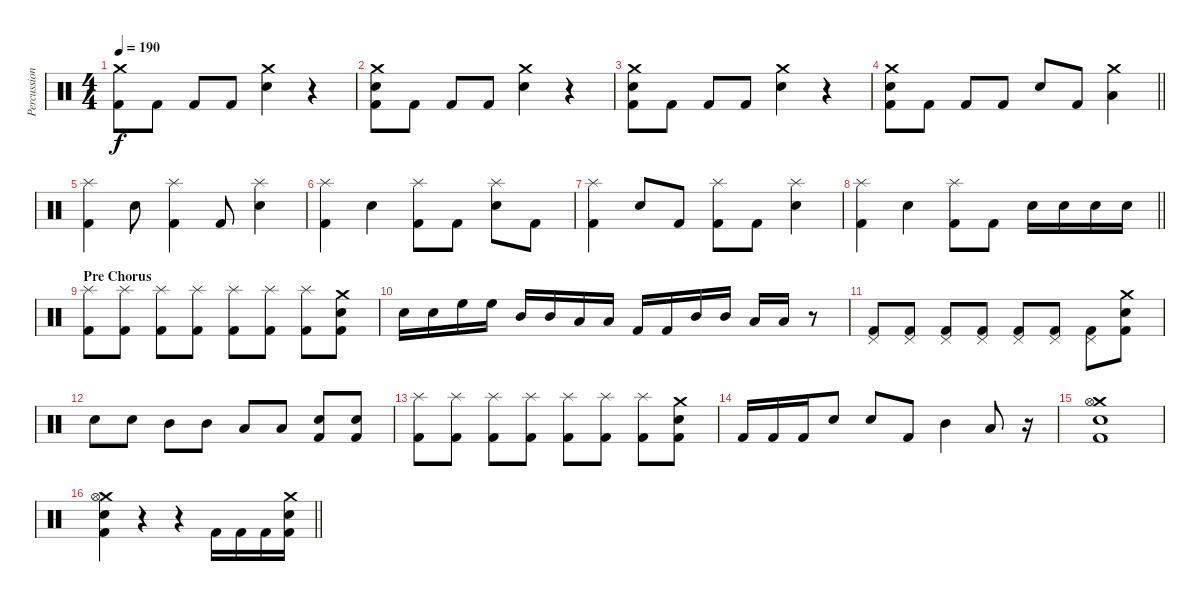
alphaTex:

\track ("Percussion" "Percussion") {instrument percussion}
\staff {score}
\articulation defaults
\ts (4 4)
\tempo 190
\clef neutral
\ks c
("Crash medium (hit)" "Kick (hit) 2").8{dy f} "Kick (hit) 2".8 "Kick (hit) 2".8 "Kick (hit) 2".8 ("Crash medium (hit)" "Electric Snare (hit)").4 r.4 |
("Crash medium (hit)" "Electric Snare (hit)" "Kick (hit) 2").8 "Kick (hit) 2".8 "Kick (hit) 2".8 "Kick (hit) 2".8 ("Crash medium (hit)" "Electric Snare (hit)").4 r.4 |
("Crash medium (hit)" "Electric Snare (hit)" "Kick (hit) 2").8 "Kick (hit) 2".8 "Kick (hit) 2".8 "Kick (hit) 2".8 ("Crash medium (hit)" "Electric Snare (hit)").4 r.4 |
\barLineRight lightlight
("Crash medium (hit)" "Electric Snare (hit)" "Kick (hit) 2").8 "Kick (hit) 2".8 "Kick (hit) 2".8 "Kick (hit) 2".8 "Electric Snare (hit)".8 "Kick (hit) 2".8 ("Crash medium (hit)" "Low Tom (hit)").4 |
("Splash (hit)" "Kick (hit) 2").4 "Electric Snare (hit)".8 ("Splash (hit)" "Kick (hit) 2").4 "Kick (hit) 2".8 ("Splash (hit)" "Electric Snare (hit)").4 |
("Splash (hit)" "Kick (hit) 2").4 "Electric Snare (hit)".4 ("Splash (hit)" "Kick (hit) 2").8 "Kick (hit) 2".8 ("Splash (hit)" "Electric Snare (hit)").8 "Kick (hit) 2".8 |
("Splash (hit)" "Kick (hit) 2").4 "Electric Snare (hit)".8 "Kick (hit) 2".8 ("Splash (hit)" "Kick (hit) 2").8 "Kick (hit) 2".8 ("Splash (hit)" "Electric Snare (hit)").4 |
\barLineRight lightlight
("Splash (hit)" "Kick (hit) 2").4 "Electric Snare (hit)".4 ("Splash (hit)" "Kick (hit) 2").8 "Kick (hit) 2".8 "Electric Snare (hit)".16 "Electric Snare (hit)".16 "Electric Snare (hit)".16 "Electric Snare (hit)".16 |
\section ("" "Pre Chorus")
("Splash (hit)" "Kick (hit) 2").8 ("Splash (hit)" "Kick (hit) 2").8 ("Splash (hit)" "Kick (hit) 2").8 ("Splash (hit)" "Kick (hit) 2").8 ("Splash (hit)" "Kick (hit) 2").8 ("Splash (hit)" "Kick (hit) 2").8 ("Splash (hit)" "Kick (hit) 2").8 ("Crash medium (hit)" "Electric Snare (hit)" "Kick (hit) 2").8 |
"Electric Snare (hit)".16 "Electric Snare (hit)".16 "High Floor Tom (hit)".16 "High Floor Tom (hit)".16 "Mid Tom (hit)".16 "Mid Tom (hit)".16 "Low Tom (hit)".16 "Low Tom (hit)".16 "Kick (hit) 2".16 "Kick (hit) 2".16 "Mid Tom (hit)".16 "Mid Tom (hit)".16 "Low Tom (hit)".16 "Low Tom (hit)".16 r.8 |
("Pedal Hi-Hat (hit)" "Kick (hit) 2").8 ("Pedal Hi-Hat (hit)" "Kick (hit) 2").8 ("Pedal Hi-Hat (hit)" "Kick (hit) 2").8 ("Pedal Hi-Hat (hit)" "Kick (hit) 2").8 ("Pedal Hi-Hat (hit)" "Kick (hit) 2").8 ("Pedal Hi-Hat (hit)" "Kick (hit) 2").8 ("Pedal Hi-Hat (hit)" "Kick (hit) 2").8 ("Crash medium (hit)" "Electric Snare (hit)" "Kick (hit) 2").8 |
"Electric Snare (hit)".8 "Electric Snare (hit)".8 "Mid Tom (hit)".8 "Mid Tom (hit)".8 "Low Tom (hit)".8 "Low Tom (hit)".8 ("Electric Snare (hit)" "Kick (hit) 2").8 ("Electric Snare (hit)" "Kick (hit) 2").8 |
("Splash (hit)" "Kick (hit) 2").8 ("Splash (hit)" "Kick (hit) 2").8 ("Splash (hit)" "Kick (hit) 2").8 ("Splash (hit)" "Kick (hit) 2").8 ("Splash (hit)" "Kick (hit) 2").8 ("Splash (hit)" "Kick (hit) 2").8 ("Splash (hit)" "Kick (hit) 2").8 ("Crash medium (hit)" "Electric Snare (hit)" "Kick (hit) 2").8 |
"Kick (hit) 2".16 "Kick (hit) 2".16 "Kick (hit) 2".16 "Electric Snare (hit)".8 "Electric Snare (hit)".8 "Kick (hit) 2".8 "Mid Tom (hit)".4 "Low Tom (hit)".8 r.16 |
("Crash medium (hit)" "Hi-Hat (open)" "Electric Snare (hit)" "Kick (hit) 2").1 |
\barLineRight lightlight
("Crash medium (hit)" "Hi-Hat (open)" "Electric Snare (hit)" "Kick (hit) 2").4 r.4 r.4 "Kick (hit) 2".16 "Kick (hit) 2".16 "Kick (hit) 2".16 ("Crash medium (hit)" "Electric Snare (hit)" "Kick (hit) 2").16
